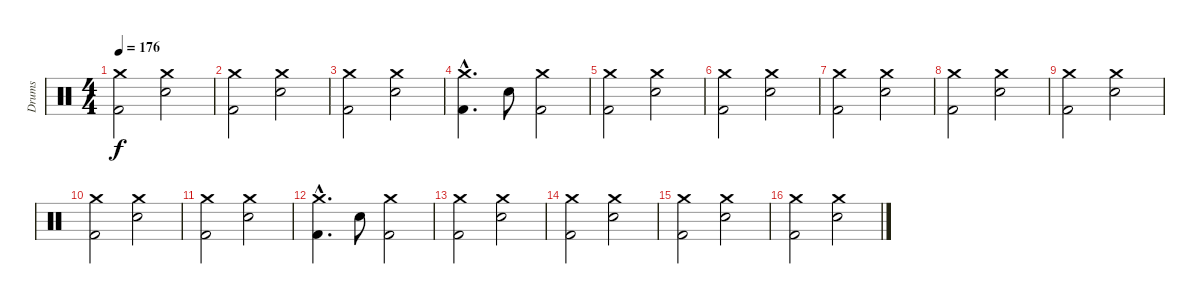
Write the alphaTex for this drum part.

\track ("Drums" "Drums") {instrument percussion}
\staff {score}
\articulation defaults
\ts (4 4)
\tempo 176
\clef neutral
\ks c
("Crash medium (hit)" "Kick (hit) 2").2{dy f} ("Crash medium (hit)" "Electric Snare (hit)").2 |
("Crash medium (hit)" "Kick (hit) 2").2 ("Crash medium (hit)" "Electric Snare (hit)").2 |
("Crash medium (hit)" "Kick (hit) 2").2 ("Crash medium (hit)" "Electric Snare (hit)").2 |
("Crash medium (hit)"{hac} "Kick (hit) 2"{hac}).4{d} "Electric Snare (hit)".8 ("Crash medium (hit)" "Kick (hit) 2").2 |
("Crash medium (hit)" "Kick (hit) 2").2 ("Crash medium (hit)" "Electric Snare (hit)").2 |
("Crash medium (hit)" "Kick (hit) 2").2 ("Crash medium (hit)" "Electric Snare (hit)").2 |
("Crash medium (hit)" "Kick (hit) 2").2 ("Crash medium (hit)" "Electric Snare (hit)").2 |
("Crash medium (hit)" "Kick (hit) 2").2 ("Crash medium (hit)" "Electric Snare (hit)").2 |
("Crash medium (hit)" "Kick (hit) 2").2 ("Crash medium (hit)" "Electric Snare (hit)").2 |
("Crash medium (hit)" "Kick (hit) 2").2 ("Crash medium (hit)" "Electric Snare (hit)").2 |
("Crash medium (hit)" "Kick (hit) 2").2 ("Crash medium (hit)" "Electric Snare (hit)").2 |
("Crash medium (hit)"{hac} "Kick (hit) 2"{hac}).4{d} "Electric Snare (hit)".8 ("Crash medium (hit)" "Kick (hit) 2").2 |
("Crash medium (hit)" "Kick (hit) 2").2 ("Crash medium (hit)" "Electric Snare (hit)").2 |
("Crash medium (hit)" "Kick (hit) 2").2 ("Crash medium (hit)" "Electric Snare (hit)").2 |
("Crash medium (hit)" "Kick (hit) 2").2 ("Crash medium (hit)" "Electric Snare (hit)").2 |
("Crash medium (hit)" "Kick (hit) 2").2 ("Crash medium (hit)" "Electric Snare (hit)").2
